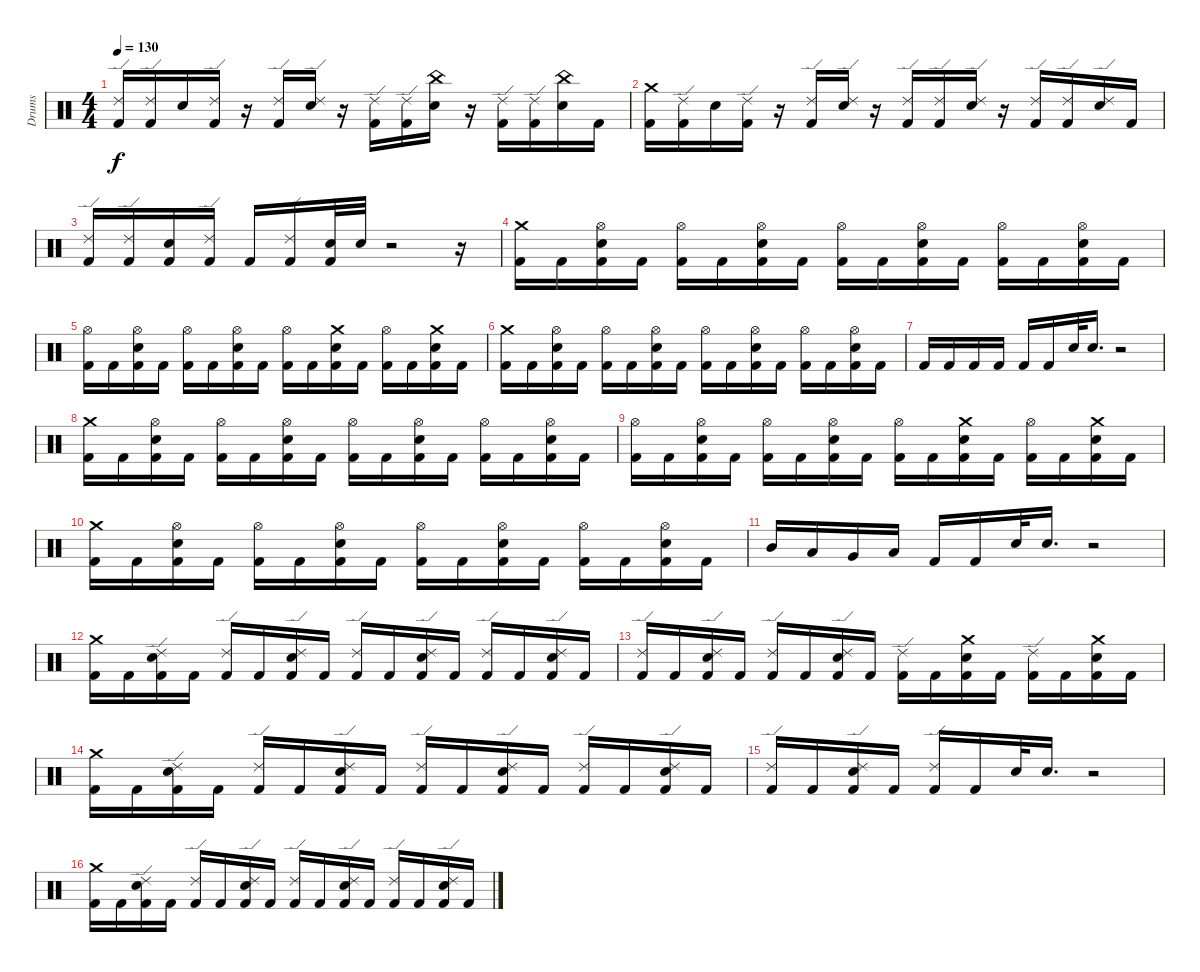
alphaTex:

\track ("Drums" "Drums") {instrument percussion}
\staff {score}
\articulation defaults
\ts (4 4)
\tempo 130
\clef neutral
\ks c
("Kick (hit) 2" "Ride (edge) 2").16{dy f} ("Kick (hit) 2" "Ride (edge) 2").16 "Electric Snare (hit)".16 ("Kick (hit) 2" "Ride (edge) 2").16 r.16 ("Kick (hit) 2" "Ride (edge) 2").16 ("Electric Snare (hit)" "Ride (edge) 2").16 r.16 ("Ride (edge) 2" "Kick (hit) 2").16 ("Ride (edge) 2" "Kick (hit) 2").16 ("China (hit)" "Electric Snare (hit)").16 r.16 ("Ride (edge) 2" "Kick (hit) 2").16 ("Ride (edge) 2" "Kick (hit) 2").16 ("China (hit)" "Electric Snare (hit)").16 "Kick (hit) 2".16 |
("Crash medium (hit)" "Kick (hit) 2").16 ("Kick (hit) 2" "Ride (edge) 2").16 "Electric Snare (hit)".16 ("Kick (hit) 2" "Ride (edge) 2").16 r.16 ("Kick (hit) 2" "Ride (edge) 2").16 ("Electric Snare (hit)" "Ride (edge) 2").16 r.16 ("Kick (hit) 2" "Ride (edge) 2").16 ("Kick (hit) 2" "Ride (edge) 2").16 ("Electric Snare (hit)" "Ride (edge) 2").16 r.16 ("Kick (hit) 2" "Ride (edge) 2").16 ("Kick (hit) 2" "Ride (edge) 2").16 ("Electric Snare (hit)" "Ride (edge) 2").16 "Kick (hit) 2".16 |
("Kick (hit) 2" "Ride (edge) 2").16 ("Kick (hit) 2" "Ride (edge) 2").16 ("Kick (hit) 2" "Electric Snare (hit)").16 ("Kick (hit) 2" "Ride (edge) 2").16 "Kick (hit) 2".16 ("Kick (hit) 2" "Ride (edge) 2").16 ("Kick (hit) 2" "Electric Snare (hit)").32 "Electric Snare (hit)".32 r.2 r.16 |
("Crash medium (hit)" "Kick (hit) 2").16 "Kick (hit) 2".16 ("Hi-Hat (open)" "Electric Snare (hit)" "Kick (hit) 2").16 "Kick (hit) 2".16 ("Hi-Hat (open)" "Kick (hit) 2").16 "Kick (hit) 2".16 ("Hi-Hat (open)" "Electric Snare (hit)" "Kick (hit) 2").16 "Kick (hit) 2".16 ("Hi-Hat (open)" "Kick (hit) 2").16 "Kick (hit) 2".16 ("Hi-Hat (open)" "Electric Snare (hit)" "Kick (hit) 2").16 "Kick (hit) 2".16 ("Hi-Hat (open)" "Kick (hit) 2").16 "Kick (hit) 2".16 ("Hi-Hat (open)" "Electric Snare (hit)" "Kick (hit) 2").16 "Kick (hit) 2".16 |
("Hi-Hat (open)" "Kick (hit) 2").16 "Kick (hit) 2".16 ("Hi-Hat (open)" "Electric Snare (hit)" "Kick (hit) 2").16 "Kick (hit) 2".16 ("Hi-Hat (open)" "Kick (hit) 2").16 "Kick (hit) 2".16 ("Hi-Hat (open)" "Electric Snare (hit)" "Kick (hit) 2").16 "Kick (hit) 2".16 ("Hi-Hat (open)" "Kick (hit) 2").16 "Kick (hit) 2".16 ("Crash medium (hit)" "Electric Snare (hit)" "Kick (hit) 2").16 "Kick (hit) 2".16 ("Hi-Hat (open)" "Kick (hit) 2").16 "Kick (hit) 2".16 ("Crash medium (hit)" "Electric Snare (hit)" "Kick (hit) 2").16 "Kick (hit) 2".16 |
("Crash medium (hit)" "Kick (hit) 2").16 "Kick (hit) 2".16 ("Hi-Hat (open)" "Electric Snare (hit)" "Kick (hit) 2").16 "Kick (hit) 2".16 ("Hi-Hat (open)" "Kick (hit) 2").16 "Kick (hit) 2".16 ("Hi-Hat (open)" "Electric Snare (hit)" "Kick (hit) 2").16 "Kick (hit) 2".16 ("Hi-Hat (open)" "Kick (hit) 2").16 "Kick (hit) 2".16 ("Hi-Hat (open)" "Electric Snare (hit)" "Kick (hit) 2").16 "Kick (hit) 2".16 ("Hi-Hat (open)" "Kick (hit) 2").16 "Kick (hit) 2".16 ("Hi-Hat (open)" "Electric Snare (hit)" "Kick (hit) 2").16 "Kick (hit) 2".16 |
"Kick (hit) 2".16 "Kick (hit) 2".16 "Kick (hit) 2".16 "Kick (hit) 2".16 "Kick (hit) 2".16 "Kick (hit) 2".16 "Electric Snare (hit)".32 "Electric Snare (hit)".16{d} r.2 |
("Crash medium (hit)" "Kick (hit) 2").16 "Kick (hit) 2".16 ("Hi-Hat (open)" "Electric Snare (hit)" "Kick (hit) 2").16 "Kick (hit) 2".16 ("Hi-Hat (open)" "Kick (hit) 2").16 "Kick (hit) 2".16 ("Hi-Hat (open)" "Electric Snare (hit)" "Kick (hit) 2").16 "Kick (hit) 2".16 ("Hi-Hat (open)" "Kick (hit) 2").16 "Kick (hit) 2".16 ("Hi-Hat (open)" "Electric Snare (hit)" "Kick (hit) 2").16 "Kick (hit) 2".16 ("Hi-Hat (open)" "Kick (hit) 2").16 "Kick (hit) 2".16 ("Hi-Hat (open)" "Electric Snare (hit)" "Kick (hit) 2").16 "Kick (hit) 2".16 |
("Hi-Hat (open)" "Kick (hit) 2").16 "Kick (hit) 2".16 ("Hi-Hat (open)" "Electric Snare (hit)" "Kick (hit) 2").16 "Kick (hit) 2".16 ("Hi-Hat (open)" "Kick (hit) 2").16 "Kick (hit) 2".16 ("Hi-Hat (open)" "Electric Snare (hit)" "Kick (hit) 2").16 "Kick (hit) 2".16 ("Hi-Hat (open)" "Kick (hit) 2").16 "Kick (hit) 2".16 ("Crash medium (hit)" "Electric Snare (hit)" "Kick (hit) 2").16 "Kick (hit) 2".16 ("Hi-Hat (open)" "Kick (hit) 2").16 "Kick (hit) 2".16 ("Crash medium (hit)" "Electric Snare (hit)" "Kick (hit) 2").16 "Kick (hit) 2".16 |
("Crash medium (hit)" "Kick (hit) 2").16 "Kick (hit) 2".16 ("Hi-Hat (open)" "Electric Snare (hit)" "Kick (hit) 2").16 "Kick (hit) 2".16 ("Hi-Hat (open)" "Kick (hit) 2").16 "Kick (hit) 2".16 ("Hi-Hat (open)" "Electric Snare (hit)" "Kick (hit) 2").16 "Kick (hit) 2".16 ("Hi-Hat (open)" "Kick (hit) 2").16 "Kick (hit) 2".16 ("Hi-Hat (open)" "Electric Snare (hit)" "Kick (hit) 2").16 "Kick (hit) 2".16 ("Hi-Hat (open)" "Kick (hit) 2").16 "Kick (hit) 2".16 ("Hi-Hat (open)" "Electric Snare (hit)" "Kick (hit) 2").16 "Kick (hit) 2".16 |
"Mid Tom (hit)".16 "Low Tom (hit)".16 "Very Low Tom (hit)".16 "Low Floor Tom (hit)".16 "Kick (hit) 2".16 "Kick (hit) 2".16 "Electric Snare (hit)".32 "Electric Snare (hit)".16{d} r.2 |
("Crash medium (hit)" "Kick (hit) 2").16 "Kick (hit) 2".16 ("Ride (edge) 2" "Electric Snare (hit)" "Kick (hit) 2").16 "Kick (hit) 2".16 ("Ride (edge) 2" "Kick (hit) 2").16 "Kick (hit) 2".16 ("Ride (edge) 2" "Electric Snare (hit)" "Kick (hit) 2").16 "Kick (hit) 2".16 ("Ride (edge) 2" "Kick (hit) 2").16 "Kick (hit) 2".16 ("Ride (edge) 2" "Electric Snare (hit)" "Kick (hit) 2").16 "Kick (hit) 2".16 ("Ride (edge) 2" "Kick (hit) 2").16 "Kick (hit) 2".16 ("Ride (edge) 2" "Electric Snare (hit)" "Kick (hit) 2").16 "Kick (hit) 2".16 |
("Ride (edge) 2" "Kick (hit) 2").16 "Kick (hit) 2".16 ("Ride (edge) 2" "Electric Snare (hit)" "Kick (hit) 2").16 "Kick (hit) 2".16 ("Ride (edge) 2" "Kick (hit) 2").16 "Kick (hit) 2".16 ("Ride (edge) 2" "Electric Snare (hit)" "Kick (hit) 2").16 "Kick (hit) 2".16 ("Ride (edge) 2" "Kick (hit) 2").16 "Kick (hit) 2".16 ("Crash medium (hit)" "Electric Snare (hit)" "Kick (hit) 2").16 "Kick (hit) 2".16 ("Ride (edge) 2" "Kick (hit) 2").16 "Kick (hit) 2".16 ("Crash medium (hit)" "Electric Snare (hit)" "Kick (hit) 2").16 "Kick (hit) 2".16 |
("Crash medium (hit)" "Kick (hit) 2").16 "Kick (hit) 2".16 ("Ride (edge) 2" "Electric Snare (hit)" "Kick (hit) 2").16 "Kick (hit) 2".16 ("Ride (edge) 2" "Kick (hit) 2").16 "Kick (hit) 2".16 ("Ride (edge) 2" "Electric Snare (hit)" "Kick (hit) 2").16 "Kick (hit) 2".16 ("Ride (edge) 2" "Kick (hit) 2").16 "Kick (hit) 2".16 ("Ride (edge) 2" "Electric Snare (hit)" "Kick (hit) 2").16 "Kick (hit) 2".16 ("Ride (edge) 2" "Kick (hit) 2").16 "Kick (hit) 2".16 ("Ride (edge) 2" "Electric Snare (hit)" "Kick (hit) 2").16 "Kick (hit) 2".16 |
("Ride (edge) 2" "Kick (hit) 2").16 "Kick (hit) 2".16 ("Electric Snare (hit)" "Ride (edge) 2" "Kick (hit) 2").16 "Kick (hit) 2".16 ("Ride (edge) 2" "Kick (hit) 2").16 "Kick (hit) 2".16 "Electric Snare (hit)".32 "Electric Snare (hit)".16{d} r.2 |
("Crash medium (hit)" "Kick (hit) 2").16 "Kick (hit) 2".16 ("Ride (edge) 2" "Electric Snare (hit)" "Kick (hit) 2").16 "Kick (hit) 2".16 ("Ride (edge) 2" "Kick (hit) 2").16 "Kick (hit) 2".16 ("Ride (edge) 2" "Electric Snare (hit)" "Kick (hit) 2").16 "Kick (hit) 2".16 ("Ride (edge) 2" "Kick (hit) 2").16 "Kick (hit) 2".16 ("Ride (edge) 2" "Electric Snare (hit)" "Kick (hit) 2").16 "Kick (hit) 2".16 ("Ride (edge) 2" "Kick (hit) 2").16 "Kick (hit) 2".16 ("Ride (edge) 2" "Electric Snare (hit)" "Kick (hit) 2").16 "Kick (hit) 2".16
